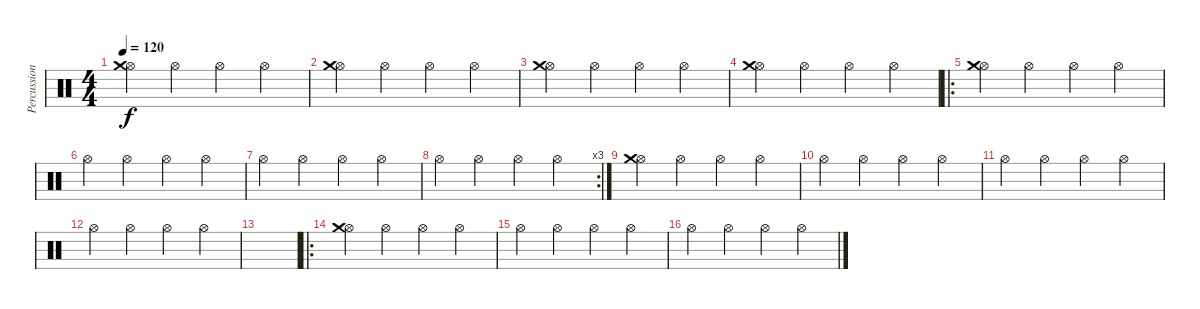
\track ("Percussions" "Percussion") {instrument percussion}
\staff {score}
\articulation defaults
\ts (4 4)
\tempo 120
\clef neutral
\ks c
("Hi-Hat (open)" "Crash medium (hit)").4{dy f} "Hi-Hat (open)".4 "Hi-Hat (open)".4 "Hi-Hat (open)".4 |
("Hi-Hat (open)" "Crash medium (hit)").4 "Hi-Hat (open)".4 "Hi-Hat (open)".4 "Hi-Hat (open)".4 |
("Hi-Hat (open)" "Crash medium (hit)").4 "Hi-Hat (open)".4 "Hi-Hat (open)".4 "Hi-Hat (open)".4 |
("Hi-Hat (open)" "Crash medium (hit)").4 "Hi-Hat (open)".4 "Hi-Hat (open)".4 "Hi-Hat (open)".4 |
\ro
("Hi-Hat (open)" "Crash medium (hit)").4 "Hi-Hat (open)".4 "Hi-Hat (open)".4 "Hi-Hat (open)".4 |
"Hi-Hat (open)".4 "Hi-Hat (open)".4 "Hi-Hat (open)".4 "Hi-Hat (open)".4 |
"Hi-Hat (open)".4 "Hi-Hat (open)".4 "Hi-Hat (open)".4 "Hi-Hat (open)".4 |
\rc 3 "Hi-Hat (open)".4 "Hi-Hat (open)".4 "Hi-Hat (open)".4 "Hi-Hat (open)".4
|
("Hi-Hat (open)" "Crash medium (hit)").4 "Hi-Hat (open)".4 "Hi-Hat (open)".4 "Hi-Hat (open)".4 |
"Hi-Hat (open)".4 "Hi-Hat (open)".4 "Hi-Hat (open)".4 "Hi-Hat (open)".4 |
"Hi-Hat (open)".4 "Hi-Hat (open)".4 "Hi-Hat (open)".4 "Hi-Hat (open)".4 |
"Hi-Hat (open)".4 "Hi-Hat (open)".4 "Hi-Hat (open)".4 "Hi-Hat (open)".4 |
|
\ro
("Hi-Hat (open)" "Crash medium (hit)").4 "Hi-Hat (open)".4 "Hi-Hat (open)".4 "Hi-Hat (open)".4 |
"Hi-Hat (open)".4 "Hi-Hat (open)".4 "Hi-Hat (open)".4 "Hi-Hat (open)".4 |
"Hi-Hat (open)".4 "Hi-Hat (open)".4 "Hi-Hat (open)".4 "Hi-Hat (open)".4
